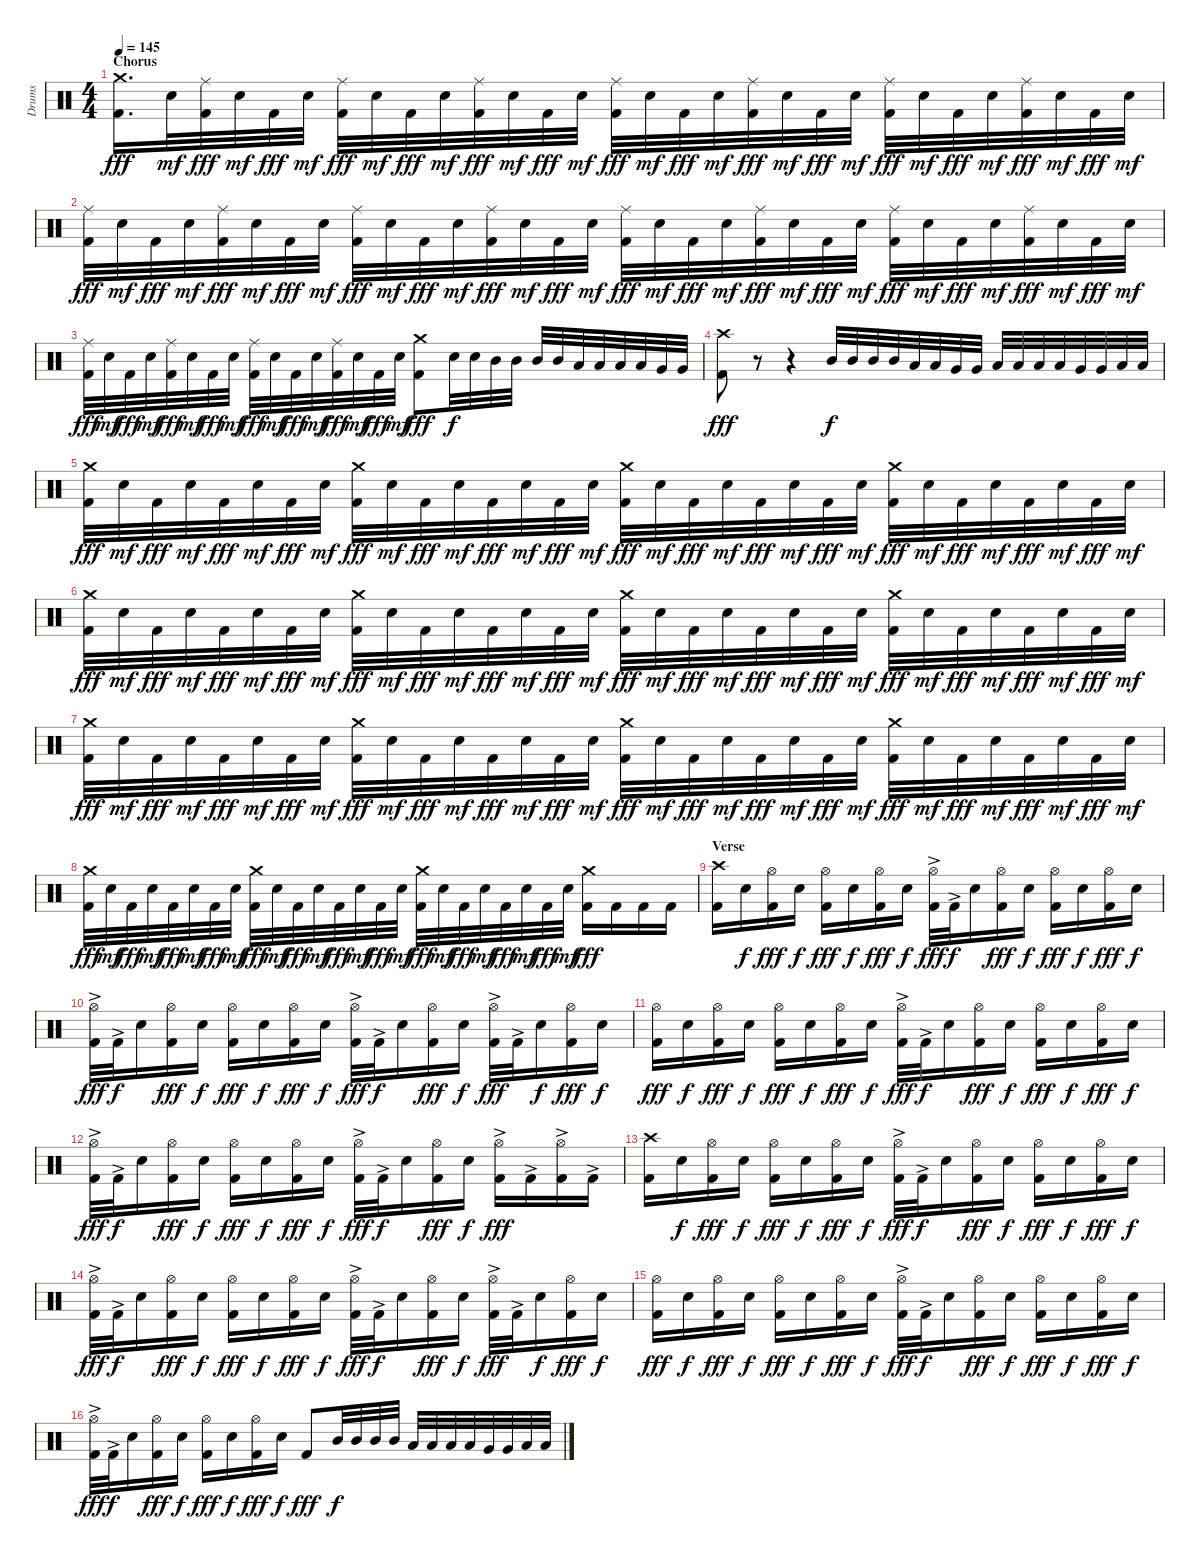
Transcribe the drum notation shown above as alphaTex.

\track ("Drums" "Drums") {instrument percussion}
\staff {score}
\articulation defaults
\ts (4 4)
\section ("" "Chorus")
\tempo 145
\clef neutral
\ks c
("Crash medium (hit)" "Kick (hit) 2").16{d dy fff} "Electric Snare (hit)".32{dy mf} ("Ride (middle)" "Kick (hit) 2").32{dy fff} "Electric Snare (hit)".32{dy mf} "Kick (hit) 2".32{dy fff} "Electric Snare (hit)".32{dy mf} ("Ride (middle)" "Kick (hit) 2").32{dy fff} "Electric Snare (hit)".32{dy mf} "Kick (hit) 2".32{dy fff} "Electric Snare (hit)".32{dy mf} ("Ride (middle)" "Kick (hit) 2").32{dy fff} "Electric Snare (hit)".32{dy mf} "Kick (hit) 2".32{dy fff} "Electric Snare (hit)".32{dy mf} ("Ride (middle)" "Kick (hit) 2").32{dy fff} "Electric Snare (hit)".32{dy mf} "Kick (hit) 2".32{dy fff} "Electric Snare (hit)".32{dy mf} ("Ride (middle)" "Kick (hit) 2").32{dy fff} "Electric Snare (hit)".32{dy mf} "Kick (hit) 2".32{dy fff} "Electric Snare (hit)".32{dy mf} ("Ride (middle)" "Kick (hit) 2").32{dy fff} "Electric Snare (hit)".32{dy mf} "Kick (hit) 2".32{dy fff} "Electric Snare (hit)".32{dy mf} ("Ride (middle)" "Kick (hit) 2").32{dy fff} "Electric Snare (hit)".32{dy mf} "Kick (hit) 2".32{dy fff} "Electric Snare (hit)".32{dy mf} |
("Ride (middle)" "Kick (hit) 2").32{dy fff} "Electric Snare (hit)".32{dy mf} "Kick (hit) 2".32{dy fff} "Electric Snare (hit)".32{dy mf} ("Ride (middle)" "Kick (hit) 2").32{dy fff} "Electric Snare (hit)".32{dy mf} "Kick (hit) 2".32{dy fff} "Electric Snare (hit)".32{dy mf} ("Ride (middle)" "Kick (hit) 2").32{dy fff} "Electric Snare (hit)".32{dy mf} "Kick (hit) 2".32{dy fff} "Electric Snare (hit)".32{dy mf} ("Ride (middle)" "Kick (hit) 2").32{dy fff} "Electric Snare (hit)".32{dy mf} "Kick (hit) 2".32{dy fff} "Electric Snare (hit)".32{dy mf} ("Ride (middle)" "Kick (hit) 2").32{dy fff} "Electric Snare (hit)".32{dy mf} "Kick (hit) 2".32{dy fff} "Electric Snare (hit)".32{dy mf} ("Ride (middle)" "Kick (hit) 2").32{dy fff} "Electric Snare (hit)".32{dy mf} "Kick (hit) 2".32{dy fff} "Electric Snare (hit)".32{dy mf} ("Ride (middle)" "Kick (hit) 2").32{dy fff} "Electric Snare (hit)".32{dy mf} "Kick (hit) 2".32{dy fff} "Electric Snare (hit)".32{dy mf} ("Ride (middle)" "Kick (hit) 2").32{dy fff} "Electric Snare (hit)".32{dy mf} "Kick (hit) 2".32{dy fff} "Electric Snare (hit)".32{dy mf} |
("Ride (middle)" "Kick (hit) 2").32{dy fff} "Electric Snare (hit)".32{dy mf} "Kick (hit) 2".32{dy fff} "Electric Snare (hit)".32{dy mf} ("Ride (middle)" "Kick (hit) 2").32{dy fff} "Electric Snare (hit)".32{dy mf} "Kick (hit) 2".32{dy fff} "Electric Snare (hit)".32{dy mf} ("Ride (middle)" "Kick (hit) 2").32{dy fff} "Electric Snare (hit)".32{dy mf} "Kick (hit) 2".32{dy fff} "Electric Snare (hit)".32{dy mf} ("Ride (middle)" "Kick (hit) 2").32{dy fff} "Electric Snare (hit)".32{dy mf} "Kick (hit) 2".32{dy fff} "Electric Snare (hit)".32{dy mf} ("Crash medium (hit)" "Kick (hit) 2").8{dy fff} "Electric Snare (hit)".32{dy f} "Electric Snare (hit)".32 "Mid Tom (hit)".32 "Mid Tom (hit)".32 "Mid Tom (hit)".32 "Mid Tom (hit)".32 "Low Tom (hit)".32 "Low Tom (hit)".32 "Low Tom (hit)".32 "Low Tom (hit)".32 "Very Low Tom (hit)".32 "Very Low Tom (hit)".32 |
("Crash high (hit)" "Kick (hit) 2").8{dy fff} r.8 r.4 "Mid Tom (hit)".32{dy f} "Mid Tom (hit)".32 "Mid Tom (hit)".32 "Mid Tom (hit)".32 "Low Tom (hit)".32 "Low Tom (hit)".32 "Very Low Tom (hit)".32 "Very Low Tom (hit)".32 "Low Tom (hit)".32 "Low Tom (hit)".32 "Low Tom (hit)".32 "Low Tom (hit)".32 "Very Low Tom (hit)".32 "Very Low Tom (hit)".32 "Low Floor Tom (hit)".32 "Low Floor Tom (hit)".32 |
("Crash medium (hit)" "Kick (hit) 2").32{dy fff} "Electric Snare (hit)".32{dy mf} "Kick (hit) 2".32{dy fff} "Electric Snare (hit)".32{dy mf} "Kick (hit) 2".32{dy fff} "Electric Snare (hit)".32{dy mf} "Kick (hit) 2".32{dy fff} "Electric Snare (hit)".32{dy mf} ("Crash medium (hit)" "Kick (hit) 2").32{dy fff} "Electric Snare (hit)".32{dy mf} "Kick (hit) 2".32{dy fff} "Electric Snare (hit)".32{dy mf} "Kick (hit) 2".32{dy fff} "Electric Snare (hit)".32{dy mf} "Kick (hit) 2".32{dy fff} "Electric Snare (hit)".32{dy mf} ("Crash medium (hit)" "Kick (hit) 2").32{dy fff} "Electric Snare (hit)".32{dy mf} "Kick (hit) 2".32{dy fff} "Electric Snare (hit)".32{dy mf} "Kick (hit) 2".32{dy fff} "Electric Snare (hit)".32{dy mf} "Kick (hit) 2".32{dy fff} "Electric Snare (hit)".32{dy mf} ("Crash medium (hit)" "Kick (hit) 2").32{dy fff} "Electric Snare (hit)".32{dy mf} "Kick (hit) 2".32{dy fff} "Electric Snare (hit)".32{dy mf} "Kick (hit) 2".32{dy fff} "Electric Snare (hit)".32{dy mf} "Kick (hit) 2".32{dy fff} "Electric Snare (hit)".32{dy mf} |
("Crash medium (hit)" "Kick (hit) 2").32{dy fff} "Electric Snare (hit)".32{dy mf} "Kick (hit) 2".32{dy fff} "Electric Snare (hit)".32{dy mf} "Kick (hit) 2".32{dy fff} "Electric Snare (hit)".32{dy mf} "Kick (hit) 2".32{dy fff} "Electric Snare (hit)".32{dy mf} ("Crash medium (hit)" "Kick (hit) 2").32{dy fff} "Electric Snare (hit)".32{dy mf} "Kick (hit) 2".32{dy fff} "Electric Snare (hit)".32{dy mf} "Kick (hit) 2".32{dy fff} "Electric Snare (hit)".32{dy mf} "Kick (hit) 2".32{dy fff} "Electric Snare (hit)".32{dy mf} ("Crash medium (hit)" "Kick (hit) 2").32{dy fff} "Electric Snare (hit)".32{dy mf} "Kick (hit) 2".32{dy fff} "Electric Snare (hit)".32{dy mf} "Kick (hit) 2".32{dy fff} "Electric Snare (hit)".32{dy mf} "Kick (hit) 2".32{dy fff} "Electric Snare (hit)".32{dy mf} ("Crash medium (hit)" "Kick (hit) 2").32{dy fff} "Electric Snare (hit)".32{dy mf} "Kick (hit) 2".32{dy fff} "Electric Snare (hit)".32{dy mf} "Kick (hit) 2".32{dy fff} "Electric Snare (hit)".32{dy mf} "Kick (hit) 2".32{dy fff} "Electric Snare (hit)".32{dy mf} |
("Crash medium (hit)" "Kick (hit) 2").32{dy fff} "Electric Snare (hit)".32{dy mf} "Kick (hit) 2".32{dy fff} "Electric Snare (hit)".32{dy mf} "Kick (hit) 2".32{dy fff} "Electric Snare (hit)".32{dy mf} "Kick (hit) 2".32{dy fff} "Electric Snare (hit)".32{dy mf} ("Crash medium (hit)" "Kick (hit) 2").32{dy fff} "Electric Snare (hit)".32{dy mf} "Kick (hit) 2".32{dy fff} "Electric Snare (hit)".32{dy mf} "Kick (hit) 2".32{dy fff} "Electric Snare (hit)".32{dy mf} "Kick (hit) 2".32{dy fff} "Electric Snare (hit)".32{dy mf} ("Crash medium (hit)" "Kick (hit) 2").32{dy fff} "Electric Snare (hit)".32{dy mf} "Kick (hit) 2".32{dy fff} "Electric Snare (hit)".32{dy mf} "Kick (hit) 2".32{dy fff} "Electric Snare (hit)".32{dy mf} "Kick (hit) 2".32{dy fff} "Electric Snare (hit)".32{dy mf} ("Crash medium (hit)" "Kick (hit) 2").32{dy fff} "Electric Snare (hit)".32{dy mf} "Kick (hit) 2".32{dy fff} "Electric Snare (hit)".32{dy mf} "Kick (hit) 2".32{dy fff} "Electric Snare (hit)".32{dy mf} "Kick (hit) 2".32{dy fff} "Electric Snare (hit)".32{dy mf} |
("Crash medium (hit)" "Kick (hit) 2").32{dy fff} "Electric Snare (hit)".32{dy mf} "Kick (hit) 2".32{dy fff} "Electric Snare (hit)".32{dy mf} "Kick (hit) 2".32{dy fff} "Electric Snare (hit)".32{dy mf} "Kick (hit) 2".32{dy fff} "Electric Snare (hit)".32{dy mf} ("Crash medium (hit)" "Kick (hit) 2").32{dy fff} "Electric Snare (hit)".32{dy mf} "Kick (hit) 2".32{dy fff} "Electric Snare (hit)".32{dy mf} "Kick (hit) 2".32{dy fff} "Electric Snare (hit)".32{dy mf} "Kick (hit) 2".32{dy fff} "Electric Snare (hit)".32{dy mf} ("Crash medium (hit)" "Kick (hit) 2").32{dy fff} "Electric Snare (hit)".32{dy mf} "Kick (hit) 2".32{dy fff} "Electric Snare (hit)".32{dy mf} "Kick (hit) 2".32{dy fff} "Electric Snare (hit)".32{dy mf} "Kick (hit) 2".32{dy fff} "Electric Snare (hit)".32{dy mf} ("Crash medium (hit)" "Kick (hit) 2").16{dy fff} "Kick (hit) 2".16 "Kick (hit) 2".16 "Kick (hit) 2".16 |
\section ("" "Verse")
("Crash high (hit)" "Kick (hit) 2").16 "Electric Snare (hit)".16{dy f} ("Hi-Hat (open)" "Kick (hit) 2").16{dy fff} "Electric Snare (hit)".16{dy f} ("Hi-Hat (open)" "Kick (hit) 2").16{dy fff} "Electric Snare (hit)".16{dy f} ("Hi-Hat (open)" "Kick (hit) 2").16{dy fff} "Electric Snare (hit)".16{dy f} ("Hi-Hat (open)" "Kick (hit) 2"{ac}).32{dy fff} "Kick (hit) 2"{ac}.32{dy f} "Electric Snare (hit)".16 ("Hi-Hat (open)" "Kick (hit) 2").16{dy fff} "Electric Snare (hit)".16{dy f} ("Hi-Hat (open)" "Kick (hit) 2").16{dy fff} "Electric Snare (hit)".16{dy f} ("Hi-Hat (open)" "Kick (hit) 2").16{dy fff} "Electric Snare (hit)".16{dy f} |
("Hi-Hat (open)" "Kick (hit) 2"{ac}).32{dy fff} "Kick (hit) 2"{ac}.32{dy f} "Electric Snare (hit)".16 ("Hi-Hat (open)" "Kick (hit) 2").16{dy fff} "Electric Snare (hit)".16{dy f} ("Hi-Hat (open)" "Kick (hit) 2").16{dy fff} "Electric Snare (hit)".16{dy f} ("Hi-Hat (open)" "Kick (hit) 2").16{dy fff} "Electric Snare (hit)".16{dy f} ("Hi-Hat (open)" "Kick (hit) 2"{ac}).32{dy fff} "Kick (hit) 2"{ac}.32{dy f} "Electric Snare (hit)".16 ("Hi-Hat (open)" "Kick (hit) 2").16{dy fff} "Electric Snare (hit)".16{dy f} ("Hi-Hat (open)" "Kick (hit) 2"{ac}).32{dy fff} "Kick (hit) 2"{ac}.32 "Electric Snare (hit)".16{dy f} ("Hi-Hat (open)" "Kick (hit) 2").16{dy fff} "Electric Snare (hit)".16{dy f} |
("Hi-Hat (open)" "Kick (hit) 2").16{dy fff} "Electric Snare (hit)".16{dy f} ("Hi-Hat (open)" "Kick (hit) 2").16{dy fff} "Electric Snare (hit)".16{dy f} ("Hi-Hat (open)" "Kick (hit) 2").16{dy fff} "Electric Snare (hit)".16{dy f} ("Hi-Hat (open)" "Kick (hit) 2").16{dy fff} "Electric Snare (hit)".16{dy f} ("Hi-Hat (open)" "Kick (hit) 2"{ac}).32{dy fff} "Kick (hit) 2"{ac}.32{dy f} "Electric Snare (hit)".16 ("Hi-Hat (open)" "Kick (hit) 2").16{dy fff} "Electric Snare (hit)".16{dy f} ("Hi-Hat (open)" "Kick (hit) 2").16{dy fff} "Electric Snare (hit)".16{dy f} ("Hi-Hat (open)" "Kick (hit) 2").16{dy fff} "Electric Snare (hit)".16{dy f} |
("Hi-Hat (open)" "Kick (hit) 2"{ac}).32{dy fff} "Kick (hit) 2"{ac}.32{dy f} "Electric Snare (hit)".16 ("Hi-Hat (open)" "Kick (hit) 2").16{dy fff} "Electric Snare (hit)".16{dy f} ("Hi-Hat (open)" "Kick (hit) 2").16{dy fff} "Electric Snare (hit)".16{dy f} ("Hi-Hat (open)" "Kick (hit) 2").16{dy fff} "Electric Snare (hit)".16{dy f} ("Hi-Hat (open)" "Kick (hit) 2"{ac}).32{dy fff} "Kick (hit) 2"{ac}.32{dy f} "Electric Snare (hit)".16 ("Hi-Hat (open)" "Kick (hit) 2").16{dy fff} "Electric Snare (hit)".16{dy f} ("Hi-Hat (open)" "Kick (hit) 2"{ac}).16{dy fff} "Kick (hit) 2"{ac}.16 ("Hi-Hat (open)" "Kick (hit) 2"{ac}).16 "Kick (hit) 2"{ac}.16 |
("Crash high (hit)" "Kick (hit) 2").16 "Electric Snare (hit)".16{dy f} ("Hi-Hat (open)" "Kick (hit) 2").16{dy fff} "Electric Snare (hit)".16{dy f} ("Hi-Hat (open)" "Kick (hit) 2").16{dy fff} "Electric Snare (hit)".16{dy f} ("Hi-Hat (open)" "Kick (hit) 2").16{dy fff} "Electric Snare (hit)".16{dy f} ("Hi-Hat (open)" "Kick (hit) 2"{ac}).32{dy fff} "Kick (hit) 2"{ac}.32{dy f} "Electric Snare (hit)".16 ("Hi-Hat (open)" "Kick (hit) 2").16{dy fff} "Electric Snare (hit)".16{dy f} ("Hi-Hat (open)" "Kick (hit) 2").16{dy fff} "Electric Snare (hit)".16{dy f} ("Hi-Hat (open)" "Kick (hit) 2").16{dy fff} "Electric Snare (hit)".16{dy f} |
("Hi-Hat (open)" "Kick (hit) 2"{ac}).32{dy fff} "Kick (hit) 2"{ac}.32{dy f} "Electric Snare (hit)".16 ("Hi-Hat (open)" "Kick (hit) 2").16{dy fff} "Electric Snare (hit)".16{dy f} ("Hi-Hat (open)" "Kick (hit) 2").16{dy fff} "Electric Snare (hit)".16{dy f} ("Hi-Hat (open)" "Kick (hit) 2").16{dy fff} "Electric Snare (hit)".16{dy f} ("Hi-Hat (open)" "Kick (hit) 2"{ac}).32{dy fff} "Kick (hit) 2"{ac}.32{dy f} "Electric Snare (hit)".16 ("Hi-Hat (open)" "Kick (hit) 2").16{dy fff} "Electric Snare (hit)".16{dy f} ("Hi-Hat (open)" "Kick (hit) 2"{ac}).32{dy fff} "Kick (hit) 2"{ac}.32 "Electric Snare (hit)".16{dy f} ("Hi-Hat (open)" "Kick (hit) 2").16{dy fff} "Electric Snare (hit)".16{dy f} |
("Hi-Hat (open)" "Kick (hit) 2").16{dy fff} "Electric Snare (hit)".16{dy f} ("Hi-Hat (open)" "Kick (hit) 2").16{dy fff} "Electric Snare (hit)".16{dy f} ("Hi-Hat (open)" "Kick (hit) 2").16{dy fff} "Electric Snare (hit)".16{dy f} ("Hi-Hat (open)" "Kick (hit) 2").16{dy fff} "Electric Snare (hit)".16{dy f} ("Hi-Hat (open)" "Kick (hit) 2"{ac}).32{dy fff} "Kick (hit) 2"{ac}.32{dy f} "Electric Snare (hit)".16 ("Hi-Hat (open)" "Kick (hit) 2").16{dy fff} "Electric Snare (hit)".16{dy f} ("Hi-Hat (open)" "Kick (hit) 2").16{dy fff} "Electric Snare (hit)".16{dy f} ("Hi-Hat (open)" "Kick (hit) 2").16{dy fff} "Electric Snare (hit)".16{dy f} |
("Hi-Hat (open)" "Kick (hit) 2"{ac}).32{dy fff} "Kick (hit) 2"{ac}.32{dy f} "Electric Snare (hit)".16 ("Hi-Hat (open)" "Kick (hit) 2").16{dy fff} "Electric Snare (hit)".16{dy f} ("Hi-Hat (open)" "Kick (hit) 2").16{dy fff} "Electric Snare (hit)".16{dy f} ("Hi-Hat (open)" "Kick (hit) 2").16{dy fff} "Electric Snare (hit)".16{dy f} "Kick (hit) 2".8{dy fff} "Mid Tom (hit)".32{dy f} "Mid Tom (hit)".32 "Mid Tom (hit)".32 "Mid Tom (hit)".32 "Low Tom (hit)".32 "Low Tom (hit)".32 "Low Tom (hit)".32 "Low Tom (hit)".32 "Very Low Tom (hit)".32 "Very Low Tom (hit)".32 "Low Floor Tom (hit)".32 "Low Floor Tom (hit)".32
